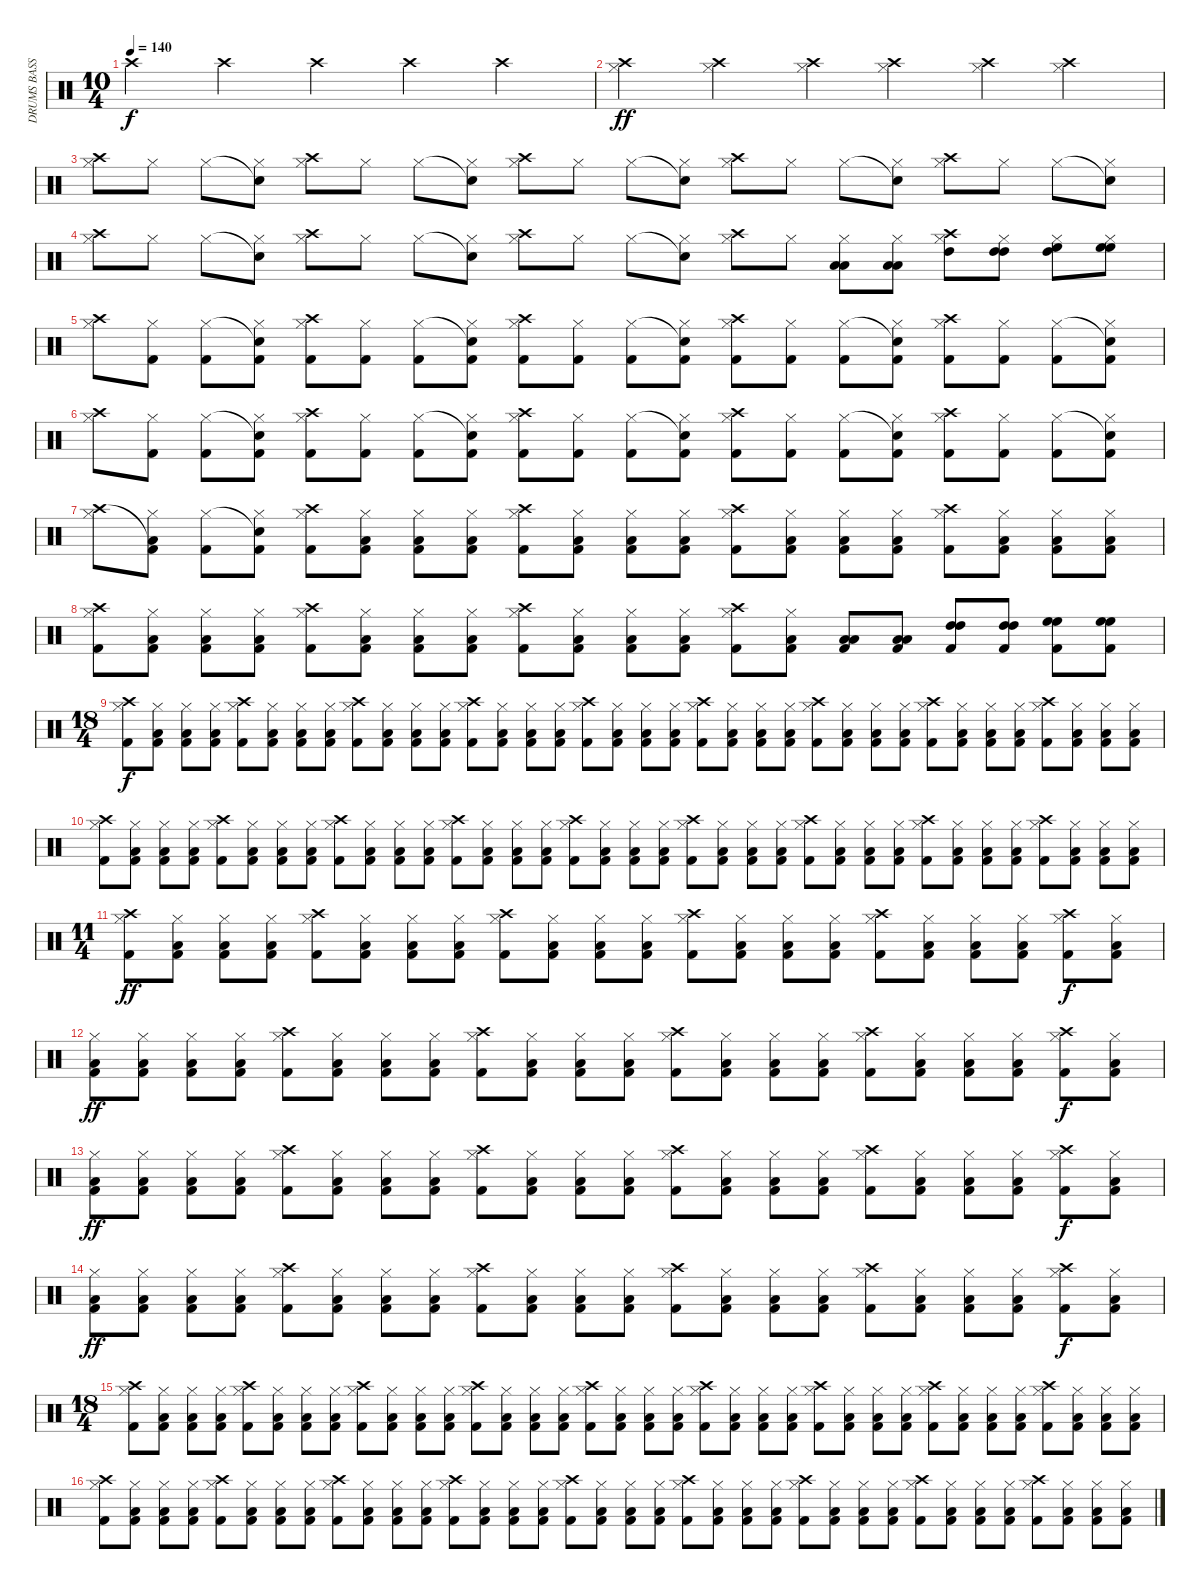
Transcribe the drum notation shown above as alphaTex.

\track ("DRUMS BASS" "DRUMS BASS") {instrument percussion}
\staff {score}
\articulation defaults
\ts (10 4)
\tempo 140
\clef neutral
\ks c "Crash high (hit)".2{dy f} "Crash high (hit)".2 "Crash high (hit)".2 "Crash high (hit)".2 "Crash high (hit)".2
|
("Crash high (hit)" "Hi-Hat (closed)").2{dy ff} ("Crash high (hit)" "Hi-Hat (closed)").2 ("Crash high (hit)" "Hi-Hat (closed)").4 ("Crash high (hit)" "Hi-Hat (closed)").2 ("Crash high (hit)" "Hi-Hat (closed)").4 ("Crash high (hit)" "Hi-Hat (closed)").2 |
("Crash high (hit)" "Hi-Hat (closed)").8 "Hi-Hat (closed)".8 "Hi-Hat (closed)".8 ("Snare (hit)"{t} "Hi-Hat (closed)").8 ("Crash high (hit)" "Hi-Hat (closed)").8 "Hi-Hat (closed)".8 "Hi-Hat (closed)".8 ("Snare (hit)"{t} "Hi-Hat (closed)").8 ("Crash high (hit)" "Hi-Hat (closed)").8 "Hi-Hat (closed)".8 "Hi-Hat (closed)".8 ("Snare (hit)"{t} "Hi-Hat (closed)").8 ("Crash high (hit)" "Hi-Hat (closed)").8 "Hi-Hat (closed)".8 "Hi-Hat (closed)".8 ("Snare (hit)"{t} "Hi-Hat (closed)").8 ("Crash high (hit)" "Hi-Hat (closed)").8 "Hi-Hat (closed)".8 "Hi-Hat (closed)".8 ("Snare (hit)"{t} "Hi-Hat (closed)").8 |
("Crash high (hit)" "Hi-Hat (closed)").8 "Hi-Hat (closed)".8 "Hi-Hat (closed)".8 ("Snare (hit)"{t} "Hi-Hat (closed)").8 ("Crash high (hit)" "Hi-Hat (closed)").8 "Hi-Hat (closed)".8 "Hi-Hat (closed)".8 ("Snare (hit)"{t} "Hi-Hat (closed)").8 ("Crash high (hit)" "Hi-Hat (closed)").8 "Hi-Hat (closed)".8 "Hi-Hat (closed)".8 ("Snare (hit)"{t} "Hi-Hat (closed)").8 ("Crash high (hit)" "Hi-Hat (closed)").8 "Hi-Hat (closed)".8 ("Low Tom (hit)" "Hi-Hat (closed)" "Low Tom (hit)").8 ("Low Tom (hit)" "Hi-Hat (closed)" "Low Tom (hit)").8 ("Crash high (hit)" "Hi-Hat (closed)" "High Tom (hit)").8 ("High Tom (hit)" "Hi-Hat (closed)" "High Tom (hit)").8 ("High Tom (hit)" "Hi-Hat (closed)" "High Floor Tom (hit)").8 ("High Floor Tom (hit)" "Hi-Hat (closed)" "High Floor Tom (hit)").8 |
("Crash high (hit)" "Hi-Hat (closed)").8 ("Hi-Hat (closed)" "Kick (hit) 2").8 ("Hi-Hat (closed)" "Kick (hit) 2").8 ("Snare (hit)"{t} "Hi-Hat (closed)" "Kick (hit) 2").8 ("Crash high (hit)" "Hi-Hat (closed)" "Kick (hit) 2").8 ("Hi-Hat (closed)" "Kick (hit) 2").8 ("Hi-Hat (closed)" "Kick (hit) 2").8 ("Snare (hit)"{t} "Hi-Hat (closed)" "Kick (hit) 2").8 ("Crash high (hit)" "Hi-Hat (closed)" "Kick (hit) 2").8 ("Hi-Hat (closed)" "Kick (hit) 2").8 ("Hi-Hat (closed)" "Kick (hit) 2").8 ("Snare (hit)"{t} "Hi-Hat (closed)" "Kick (hit) 2").8 ("Crash high (hit)" "Hi-Hat (closed)" "Kick (hit) 2").8 ("Hi-Hat (closed)" "Kick (hit) 2").8 ("Hi-Hat (closed)" "Kick (hit) 2").8 ("Snare (hit)"{t} "Hi-Hat (closed)" "Kick (hit) 2").8 ("Crash high (hit)" "Hi-Hat (closed)" "Kick (hit) 2").8 ("Hi-Hat (closed)" "Kick (hit) 2").8 ("Hi-Hat (closed)" "Kick (hit) 2").8 ("Snare (hit)"{t} "Hi-Hat (closed)" "Kick (hit) 2").8 |
("Crash high (hit)" "Hi-Hat (closed)").8 ("Hi-Hat (closed)" "Kick (hit) 2").8 ("Hi-Hat (closed)" "Kick (hit) 2").8 ("Snare (hit)"{t} "Hi-Hat (closed)" "Kick (hit) 2").8 ("Crash high (hit)" "Hi-Hat (closed)" "Kick (hit) 2").8 ("Hi-Hat (closed)" "Kick (hit) 2").8 ("Hi-Hat (closed)" "Kick (hit) 2").8 ("Snare (hit)"{t} "Hi-Hat (closed)" "Kick (hit) 2").8 ("Crash high (hit)" "Hi-Hat (closed)" "Kick (hit) 2").8 ("Hi-Hat (closed)" "Kick (hit) 2").8 ("Hi-Hat (closed)" "Kick (hit) 2").8 ("Snare (hit)"{t} "Hi-Hat (closed)" "Kick (hit) 2").8 ("Crash high (hit)" "Hi-Hat (closed)" "Kick (hit) 2").8 ("Hi-Hat (closed)" "Kick (hit) 2").8 ("Hi-Hat (closed)" "Kick (hit) 2").8 ("Snare (hit)"{t} "Hi-Hat (closed)" "Kick (hit) 2").8 ("Crash high (hit)" "Hi-Hat (closed)" "Kick (hit) 2").8 ("Hi-Hat (closed)" "Kick (hit) 2").8 ("Hi-Hat (closed)" "Kick (hit) 2").8 ("Snare (hit)"{t} "Hi-Hat (closed)" "Kick (hit) 2").8 |
("Crash high (hit)" "Hi-Hat (closed)").8 ("Low Tom (hit)"{t} "Hi-Hat (closed)" "Kick (hit) 2").8 ("Hi-Hat (closed)" "Kick (hit) 2").8 ("Snare (hit)"{t} "Hi-Hat (closed)" "Kick (hit) 2").8 ("Crash high (hit)" "Hi-Hat (closed)" "Kick (hit) 2").8 ("Low Tom (hit)" "Hi-Hat (closed)" "Kick (hit) 2").8 ("Low Tom (hit)" "Hi-Hat (closed)" "Kick (hit) 2").8 ("Low Tom (hit)" "Hi-Hat (closed)" "Kick (hit) 2").8 ("Crash high (hit)" "Hi-Hat (closed)" "Kick (hit) 2").8 ("Low Tom (hit)" "Hi-Hat (closed)" "Kick (hit) 2").8 ("Low Tom (hit)" "Hi-Hat (closed)" "Kick (hit) 2").8 ("Low Tom (hit)" "Hi-Hat (closed)" "Kick (hit) 2").8 ("Crash high (hit)" "Hi-Hat (closed)" "Kick (hit) 2").8 ("Low Tom (hit)" "Hi-Hat (closed)" "Kick (hit) 2").8 ("Low Tom (hit)" "Hi-Hat (closed)" "Kick (hit) 2").8 ("Low Tom (hit)" "Hi-Hat (closed)" "Kick (hit) 2").8 ("Crash high (hit)" "Hi-Hat (closed)" "Kick (hit) 2").8 ("Low Tom (hit)" "Hi-Hat (closed)" "Kick (hit) 2").8 ("Low Tom (hit)" "Hi-Hat (closed)" "Kick (hit) 2").8 ("Low Tom (hit)" "Hi-Hat (closed)" "Kick (hit) 2").8 |
("Crash high (hit)" "Hi-Hat (closed)" "Kick (hit) 2").8 ("Low Tom (hit)" "Hi-Hat (closed)" "Kick (hit) 2").8 ("Low Tom (hit)" "Hi-Hat (closed)" "Kick (hit) 2").8 ("Low Tom (hit)" "Hi-Hat (closed)" "Kick (hit) 2").8 ("Crash high (hit)" "Hi-Hat (closed)" "Kick (hit) 2").8 ("Low Tom (hit)" "Hi-Hat (closed)" "Kick (hit) 2").8 ("Low Tom (hit)" "Hi-Hat (closed)" "Kick (hit) 2").8 ("Low Tom (hit)" "Hi-Hat (closed)" "Kick (hit) 2").8 ("Crash high (hit)" "Hi-Hat (closed)" "Kick (hit) 2").8 ("Low Tom (hit)" "Hi-Hat (closed)" "Kick (hit) 2").8 ("Low Tom (hit)" "Hi-Hat (closed)" "Kick (hit) 2").8 ("Low Tom (hit)" "Hi-Hat (closed)" "Kick (hit) 2").8 ("Crash high (hit)" "Hi-Hat (closed)" "Kick (hit) 2").8 ("Low Tom (hit)" "Hi-Hat (closed)" "Kick (hit) 2").8 ("Low Tom (hit)" "Low Tom (hit)" "Kick (hit) 2").8 ("Low Tom (hit)" "Low Tom (hit)" "Kick (hit) 2").8 ("High Tom (hit)" "High Tom (hit)" "Kick (hit) 2").8 ("High Tom (hit)" "High Tom (hit)" "Kick (hit) 2").8 ("High Floor Tom (hit)" "High Floor Tom (hit)" "Kick (hit) 2").8 ("High Floor Tom (hit)" "High Floor Tom (hit)" "Kick (hit) 2").8 |
\ts (18 4)
("Crash high (hit)" "Hi-Hat (closed)" "Kick (hit) 2").8{dy f} ("Low Tom (hit)" "Hi-Hat (closed)" "Kick (hit) 2").8 ("Low Tom (hit)" "Hi-Hat (closed)" "Kick (hit) 2").8 ("Low Tom (hit)" "Hi-Hat (closed)" "Kick (hit) 2").8 ("Crash high (hit)" "Hi-Hat (closed)" "Kick (hit) 2").8 ("Low Tom (hit)" "Hi-Hat (closed)" "Kick (hit) 2").8 ("Low Tom (hit)" "Hi-Hat (closed)" "Kick (hit) 2").8 ("Low Tom (hit)" "Hi-Hat (closed)" "Kick (hit) 2").8 ("Crash high (hit)" "Hi-Hat (closed)" "Kick (hit) 2").8 ("Low Tom (hit)" "Hi-Hat (closed)" "Kick (hit) 2").8 ("Low Tom (hit)" "Hi-Hat (closed)" "Kick (hit) 2").8 ("Low Tom (hit)" "Hi-Hat (closed)" "Kick (hit) 2").8 ("Crash high (hit)" "Hi-Hat (closed)" "Kick (hit) 2").8 ("Low Tom (hit)" "Hi-Hat (closed)" "Kick (hit) 2").8 ("Low Tom (hit)" "Hi-Hat (closed)" "Kick (hit) 2").8 ("Low Tom (hit)" "Hi-Hat (closed)" "Kick (hit) 2").8 ("Crash high (hit)" "Hi-Hat (closed)" "Kick (hit) 2").8 ("Low Tom (hit)" "Hi-Hat (closed)" "Kick (hit) 2").8 ("Low Tom (hit)" "Hi-Hat (closed)" "Kick (hit) 2").8 ("Low Tom (hit)" "Hi-Hat (closed)" "Kick (hit) 2").8 ("Crash high (hit)" "Hi-Hat (closed)" "Kick (hit) 2").8 ("Low Tom (hit)" "Hi-Hat (closed)" "Kick (hit) 2").8 ("Low Tom (hit)" "Hi-Hat (closed)" "Kick (hit) 2").8 ("Low Tom (hit)" "Hi-Hat (closed)" "Kick (hit) 2").8 ("Crash high (hit)" "Hi-Hat (closed)" "Kick (hit) 2").8 ("Low Tom (hit)" "Hi-Hat (closed)" "Kick (hit) 2").8 ("Low Tom (hit)" "Hi-Hat (closed)" "Kick (hit) 2").8 ("Low Tom (hit)" "Hi-Hat (closed)" "Kick (hit) 2").8 ("Crash high (hit)" "Hi-Hat (closed)" "Kick (hit) 2").8 ("Low Tom (hit)" "Hi-Hat (closed)" "Kick (hit) 2").8 ("Low Tom (hit)" "Hi-Hat (closed)" "Kick (hit) 2").8 ("Low Tom (hit)" "Hi-Hat (closed)" "Kick (hit) 2").8 ("Crash high (hit)" "Hi-Hat (closed)" "Kick (hit) 2").8 ("Low Tom (hit)" "Hi-Hat (closed)" "Kick (hit) 2").8 ("Low Tom (hit)" "Hi-Hat (closed)" "Kick (hit) 2").8 ("Low Tom (hit)" "Hi-Hat (closed)" "Kick (hit) 2").8 |
("Crash high (hit)" "Hi-Hat (closed)" "Kick (hit) 2").8 ("Low Tom (hit)" "Hi-Hat (closed)" "Kick (hit) 2").8 ("Low Tom (hit)" "Hi-Hat (closed)" "Kick (hit) 2").8 ("Low Tom (hit)" "Hi-Hat (closed)" "Kick (hit) 2").8 ("Crash high (hit)" "Hi-Hat (closed)" "Kick (hit) 2").8 ("Low Tom (hit)" "Hi-Hat (closed)" "Kick (hit) 2").8 ("Low Tom (hit)" "Hi-Hat (closed)" "Kick (hit) 2").8 ("Low Tom (hit)" "Hi-Hat (closed)" "Kick (hit) 2").8 ("Crash high (hit)" "Hi-Hat (closed)" "Kick (hit) 2").8 ("Low Tom (hit)" "Hi-Hat (closed)" "Kick (hit) 2").8 ("Low Tom (hit)" "Hi-Hat (closed)" "Kick (hit) 2").8 ("Low Tom (hit)" "Hi-Hat (closed)" "Kick (hit) 2").8 ("Crash high (hit)" "Hi-Hat (closed)" "Kick (hit) 2").8 ("Low Tom (hit)" "Hi-Hat (closed)" "Kick (hit) 2").8 ("Low Tom (hit)" "Hi-Hat (closed)" "Kick (hit) 2").8 ("Low Tom (hit)" "Hi-Hat (closed)" "Kick (hit) 2").8 ("Crash high (hit)" "Hi-Hat (closed)" "Kick (hit) 2").8 ("Low Tom (hit)" "Hi-Hat (closed)" "Kick (hit) 2").8 ("Low Tom (hit)" "Hi-Hat (closed)" "Kick (hit) 2").8 ("Low Tom (hit)" "Hi-Hat (closed)" "Kick (hit) 2").8 ("Crash high (hit)" "Hi-Hat (closed)" "Kick (hit) 2").8 ("Low Tom (hit)" "Hi-Hat (closed)" "Kick (hit) 2").8 ("Low Tom (hit)" "Hi-Hat (closed)" "Kick (hit) 2").8 ("Low Tom (hit)" "Hi-Hat (closed)" "Kick (hit) 2").8 ("Crash high (hit)" "Hi-Hat (closed)" "Kick (hit) 2").8 ("Low Tom (hit)" "Hi-Hat (closed)" "Kick (hit) 2").8 ("Low Tom (hit)" "Hi-Hat (closed)" "Kick (hit) 2").8 ("Low Tom (hit)" "Hi-Hat (closed)" "Kick (hit) 2").8 ("Crash high (hit)" "Hi-Hat (closed)" "Kick (hit) 2").8 ("Low Tom (hit)" "Hi-Hat (closed)" "Kick (hit) 2").8 ("Low Tom (hit)" "Hi-Hat (closed)" "Kick (hit) 2").8 ("Low Tom (hit)" "Hi-Hat (closed)" "Kick (hit) 2").8 ("Crash high (hit)" "Hi-Hat (closed)" "Kick (hit) 2").8 ("Low Tom (hit)" "Hi-Hat (closed)" "Kick (hit) 2").8 ("Low Tom (hit)" "Hi-Hat (closed)" "Kick (hit) 2").8 ("Low Tom (hit)" "Hi-Hat (closed)" "Kick (hit) 2").8 |
\ts (11 4)
("Crash high (hit)" "Hi-Hat (closed)" "Kick (hit) 2").8{dy ff} ("Low Tom (hit)" "Hi-Hat (closed)" "Kick (hit) 2").8 ("Low Tom (hit)" "Hi-Hat (closed)" "Kick (hit) 2").8 ("Low Tom (hit)" "Hi-Hat (closed)" "Kick (hit) 2").8 ("Crash high (hit)" "Hi-Hat (closed)" "Kick (hit) 2").8 ("Low Tom (hit)" "Hi-Hat (closed)" "Kick (hit) 2").8 ("Low Tom (hit)" "Hi-Hat (closed)" "Kick (hit) 2").8 ("Low Tom (hit)" "Hi-Hat (closed)" "Kick (hit) 2").8 ("Crash high (hit)" "Hi-Hat (closed)" "Kick (hit) 2").8 ("Low Tom (hit)" "Hi-Hat (closed)" "Kick (hit) 2").8 ("Low Tom (hit)" "Hi-Hat (closed)" "Kick (hit) 2").8 ("Low Tom (hit)" "Hi-Hat (closed)" "Kick (hit) 2").8 ("Crash high (hit)" "Hi-Hat (closed)" "Kick (hit) 2").8 ("Low Tom (hit)" "Hi-Hat (closed)" "Kick (hit) 2").8 ("Low Tom (hit)" "Hi-Hat (closed)" "Kick (hit) 2").8 ("Low Tom (hit)" "Hi-Hat (closed)" "Kick (hit) 2").8 ("Crash high (hit)" "Hi-Hat (closed)" "Kick (hit) 2").8 ("Low Tom (hit)" "Hi-Hat (closed)" "Kick (hit) 2").8 ("Low Tom (hit)" "Hi-Hat (closed)" "Kick (hit) 2").8 ("Low Tom (hit)" "Hi-Hat (closed)" "Kick (hit) 2").8 ("Crash high (hit)" "Hi-Hat (closed)" "Kick (hit) 2").8{dy f} ("Low Tom (hit)" "Hi-Hat (closed)" "Kick (hit) 2").8 |
("Low Tom (hit)" "Hi-Hat (closed)" "Kick (hit) 2").8{dy ff} ("Low Tom (hit)" "Hi-Hat (closed)" "Kick (hit) 2").8 ("Low Tom (hit)" "Hi-Hat (closed)" "Kick (hit) 2").8 ("Low Tom (hit)" "Hi-Hat (closed)" "Kick (hit) 2").8 ("Crash high (hit)" "Hi-Hat (closed)" "Kick (hit) 2").8 ("Low Tom (hit)" "Hi-Hat (closed)" "Kick (hit) 2").8 ("Low Tom (hit)" "Hi-Hat (closed)" "Kick (hit) 2").8 ("Low Tom (hit)" "Hi-Hat (closed)" "Kick (hit) 2").8 ("Crash high (hit)" "Hi-Hat (closed)" "Kick (hit) 2").8 ("Low Tom (hit)" "Hi-Hat (closed)" "Kick (hit) 2").8 ("Low Tom (hit)" "Hi-Hat (closed)" "Kick (hit) 2").8 ("Low Tom (hit)" "Hi-Hat (closed)" "Kick (hit) 2").8 ("Crash high (hit)" "Hi-Hat (closed)" "Kick (hit) 2").8 ("Low Tom (hit)" "Hi-Hat (closed)" "Kick (hit) 2").8 ("Low Tom (hit)" "Hi-Hat (closed)" "Kick (hit) 2").8 ("Low Tom (hit)" "Hi-Hat (closed)" "Kick (hit) 2").8 ("Crash high (hit)" "Hi-Hat (closed)" "Kick (hit) 2").8 ("Low Tom (hit)" "Hi-Hat (closed)" "Kick (hit) 2").8 ("Low Tom (hit)" "Hi-Hat (closed)" "Kick (hit) 2").8 ("Low Tom (hit)" "Hi-Hat (closed)" "Kick (hit) 2").8 ("Crash high (hit)" "Hi-Hat (closed)" "Kick (hit) 2").8{dy f} ("Low Tom (hit)" "Hi-Hat (closed)" "Kick (hit) 2").8 |
("Low Tom (hit)" "Hi-Hat (closed)" "Kick (hit) 2").8{dy ff} ("Low Tom (hit)" "Hi-Hat (closed)" "Kick (hit) 2").8 ("Low Tom (hit)" "Hi-Hat (closed)" "Kick (hit) 2").8 ("Low Tom (hit)" "Hi-Hat (closed)" "Kick (hit) 2").8 ("Crash high (hit)" "Hi-Hat (closed)" "Kick (hit) 2").8 ("Low Tom (hit)" "Hi-Hat (closed)" "Kick (hit) 2").8 ("Low Tom (hit)" "Hi-Hat (closed)" "Kick (hit) 2").8 ("Low Tom (hit)" "Hi-Hat (closed)" "Kick (hit) 2").8 ("Crash high (hit)" "Hi-Hat (closed)" "Kick (hit) 2").8 ("Low Tom (hit)" "Hi-Hat (closed)" "Kick (hit) 2").8 ("Low Tom (hit)" "Hi-Hat (closed)" "Kick (hit) 2").8 ("Low Tom (hit)" "Hi-Hat (closed)" "Kick (hit) 2").8 ("Crash high (hit)" "Hi-Hat (closed)" "Kick (hit) 2").8 ("Low Tom (hit)" "Hi-Hat (closed)" "Kick (hit) 2").8 ("Low Tom (hit)" "Hi-Hat (closed)" "Kick (hit) 2").8 ("Low Tom (hit)" "Hi-Hat (closed)" "Kick (hit) 2").8 ("Crash high (hit)" "Hi-Hat (closed)" "Kick (hit) 2").8 ("Low Tom (hit)" "Hi-Hat (closed)" "Kick (hit) 2").8 ("Low Tom (hit)" "Hi-Hat (closed)" "Kick (hit) 2").8 ("Low Tom (hit)" "Hi-Hat (closed)" "Kick (hit) 2").8 ("Crash high (hit)" "Hi-Hat (closed)" "Kick (hit) 2").8{dy f} ("Low Tom (hit)" "Hi-Hat (closed)" "Kick (hit) 2").8 |
("Low Tom (hit)" "Hi-Hat (closed)" "Kick (hit) 2").8{dy ff} ("Low Tom (hit)" "Hi-Hat (closed)" "Kick (hit) 2").8 ("Low Tom (hit)" "Hi-Hat (closed)" "Kick (hit) 2").8 ("Low Tom (hit)" "Hi-Hat (closed)" "Kick (hit) 2").8 ("Crash high (hit)" "Hi-Hat (closed)" "Kick (hit) 2").8 ("Low Tom (hit)" "Hi-Hat (closed)" "Kick (hit) 2").8 ("Low Tom (hit)" "Hi-Hat (closed)" "Kick (hit) 2").8 ("Low Tom (hit)" "Hi-Hat (closed)" "Kick (hit) 2").8 ("Crash high (hit)" "Hi-Hat (closed)" "Kick (hit) 2").8 ("Low Tom (hit)" "Hi-Hat (closed)" "Kick (hit) 2").8 ("Low Tom (hit)" "Hi-Hat (closed)" "Kick (hit) 2").8 ("Low Tom (hit)" "Hi-Hat (closed)" "Kick (hit) 2").8 ("Crash high (hit)" "Hi-Hat (closed)" "Kick (hit) 2").8 ("Low Tom (hit)" "Hi-Hat (closed)" "Kick (hit) 2").8 ("Low Tom (hit)" "Hi-Hat (closed)" "Kick (hit) 2").8 ("Low Tom (hit)" "Hi-Hat (closed)" "Kick (hit) 2").8 ("Crash high (hit)" "Hi-Hat (closed)" "Kick (hit) 2").8 ("Low Tom (hit)" "Hi-Hat (closed)" "Kick (hit) 2").8 ("Low Tom (hit)" "Hi-Hat (closed)" "Kick (hit) 2").8 ("Low Tom (hit)" "Hi-Hat (closed)" "Kick (hit) 2").8 ("Crash high (hit)" "Hi-Hat (closed)" "Kick (hit) 2").8{dy f} ("Low Tom (hit)" "Hi-Hat (closed)" "Kick (hit) 2").8 |
\ts (18 4)
("Crash high (hit)" "Hi-Hat (closed)" "Kick (hit) 2").8 ("Low Tom (hit)" "Hi-Hat (closed)" "Kick (hit) 2").8 ("Low Tom (hit)" "Hi-Hat (closed)" "Kick (hit) 2").8 ("Low Tom (hit)" "Hi-Hat (closed)" "Kick (hit) 2").8 ("Crash high (hit)" "Hi-Hat (closed)" "Kick (hit) 2").8 ("Low Tom (hit)" "Hi-Hat (closed)" "Kick (hit) 2").8 ("Low Tom (hit)" "Hi-Hat (closed)" "Kick (hit) 2").8 ("Low Tom (hit)" "Hi-Hat (closed)" "Kick (hit) 2").8 ("Crash high (hit)" "Hi-Hat (closed)" "Kick (hit) 2").8 ("Low Tom (hit)" "Hi-Hat (closed)" "Kick (hit) 2").8 ("Low Tom (hit)" "Hi-Hat (closed)" "Kick (hit) 2").8 ("Low Tom (hit)" "Hi-Hat (closed)" "Kick (hit) 2").8 ("Crash high (hit)" "Hi-Hat (closed)" "Kick (hit) 2").8 ("Low Tom (hit)" "Hi-Hat (closed)" "Kick (hit) 2").8 ("Low Tom (hit)" "Hi-Hat (closed)" "Kick (hit) 2").8 ("Low Tom (hit)" "Hi-Hat (closed)" "Kick (hit) 2").8 ("Crash high (hit)" "Hi-Hat (closed)" "Kick (hit) 2").8 ("Low Tom (hit)" "Hi-Hat (closed)" "Kick (hit) 2").8 ("Low Tom (hit)" "Hi-Hat (closed)" "Kick (hit) 2").8 ("Low Tom (hit)" "Hi-Hat (closed)" "Kick (hit) 2").8 ("Crash high (hit)" "Hi-Hat (closed)" "Kick (hit) 2").8 ("Low Tom (hit)" "Hi-Hat (closed)" "Kick (hit) 2").8 ("Low Tom (hit)" "Hi-Hat (closed)" "Kick (hit) 2").8 ("Low Tom (hit)" "Hi-Hat (closed)" "Kick (hit) 2").8 ("Crash high (hit)" "Hi-Hat (closed)" "Kick (hit) 2").8 ("Low Tom (hit)" "Hi-Hat (closed)" "Kick (hit) 2").8 ("Low Tom (hit)" "Hi-Hat (closed)" "Kick (hit) 2").8 ("Low Tom (hit)" "Hi-Hat (closed)" "Kick (hit) 2").8 ("Crash high (hit)" "Hi-Hat (closed)" "Kick (hit) 2").8 ("Low Tom (hit)" "Hi-Hat (closed)" "Kick (hit) 2").8 ("Low Tom (hit)" "Hi-Hat (closed)" "Kick (hit) 2").8 ("Low Tom (hit)" "Hi-Hat (closed)" "Kick (hit) 2").8 ("Crash high (hit)" "Hi-Hat (closed)" "Kick (hit) 2").8 ("Low Tom (hit)" "Hi-Hat (closed)" "Kick (hit) 2").8 ("Low Tom (hit)" "Hi-Hat (closed)" "Kick (hit) 2").8 ("Low Tom (hit)" "Hi-Hat (closed)" "Kick (hit) 2").8 |
("Crash high (hit)" "Hi-Hat (closed)" "Kick (hit) 2").8 ("Low Tom (hit)" "Hi-Hat (closed)" "Kick (hit) 2").8 ("Low Tom (hit)" "Hi-Hat (closed)" "Kick (hit) 2").8 ("Low Tom (hit)" "Hi-Hat (closed)" "Kick (hit) 2").8 ("Crash high (hit)" "Hi-Hat (closed)" "Kick (hit) 2").8 ("Low Tom (hit)" "Hi-Hat (closed)" "Kick (hit) 2").8 ("Low Tom (hit)" "Hi-Hat (closed)" "Kick (hit) 2").8 ("Low Tom (hit)" "Hi-Hat (closed)" "Kick (hit) 2").8 ("Crash high (hit)" "Hi-Hat (closed)" "Kick (hit) 2").8 ("Low Tom (hit)" "Hi-Hat (closed)" "Kick (hit) 2").8 ("Low Tom (hit)" "Hi-Hat (closed)" "Kick (hit) 2").8 ("Low Tom (hit)" "Hi-Hat (closed)" "Kick (hit) 2").8 ("Crash high (hit)" "Hi-Hat (closed)" "Kick (hit) 2").8 ("Low Tom (hit)" "Hi-Hat (closed)" "Kick (hit) 2").8 ("Low Tom (hit)" "Hi-Hat (closed)" "Kick (hit) 2").8 ("Low Tom (hit)" "Hi-Hat (closed)" "Kick (hit) 2").8 ("Crash high (hit)" "Hi-Hat (closed)" "Kick (hit) 2").8 ("Low Tom (hit)" "Hi-Hat (closed)" "Kick (hit) 2").8 ("Low Tom (hit)" "Hi-Hat (closed)" "Kick (hit) 2").8 ("Low Tom (hit)" "Hi-Hat (closed)" "Kick (hit) 2").8 ("Crash high (hit)" "Hi-Hat (closed)" "Kick (hit) 2").8 ("Low Tom (hit)" "Hi-Hat (closed)" "Kick (hit) 2").8 ("Low Tom (hit)" "Hi-Hat (closed)" "Kick (hit) 2").8 ("Low Tom (hit)" "Hi-Hat (closed)" "Kick (hit) 2").8 ("Crash high (hit)" "Hi-Hat (closed)" "Kick (hit) 2").8 ("Low Tom (hit)" "Hi-Hat (closed)" "Kick (hit) 2").8 ("Low Tom (hit)" "Hi-Hat (closed)" "Kick (hit) 2").8 ("Low Tom (hit)" "Hi-Hat (closed)" "Kick (hit) 2").8 ("Crash high (hit)" "Hi-Hat (closed)" "Kick (hit) 2").8 ("Low Tom (hit)" "Hi-Hat (closed)" "Kick (hit) 2").8 ("Low Tom (hit)" "Hi-Hat (closed)" "Kick (hit) 2").8 ("Low Tom (hit)" "Hi-Hat (closed)" "Kick (hit) 2").8 ("Crash high (hit)" "Hi-Hat (closed)" "Kick (hit) 2").8 ("Low Tom (hit)" "Hi-Hat (closed)" "Kick (hit) 2").8 ("Low Tom (hit)" "Hi-Hat (closed)" "Kick (hit) 2").8 ("Low Tom (hit)" "Hi-Hat (closed)" "Kick (hit) 2").8
